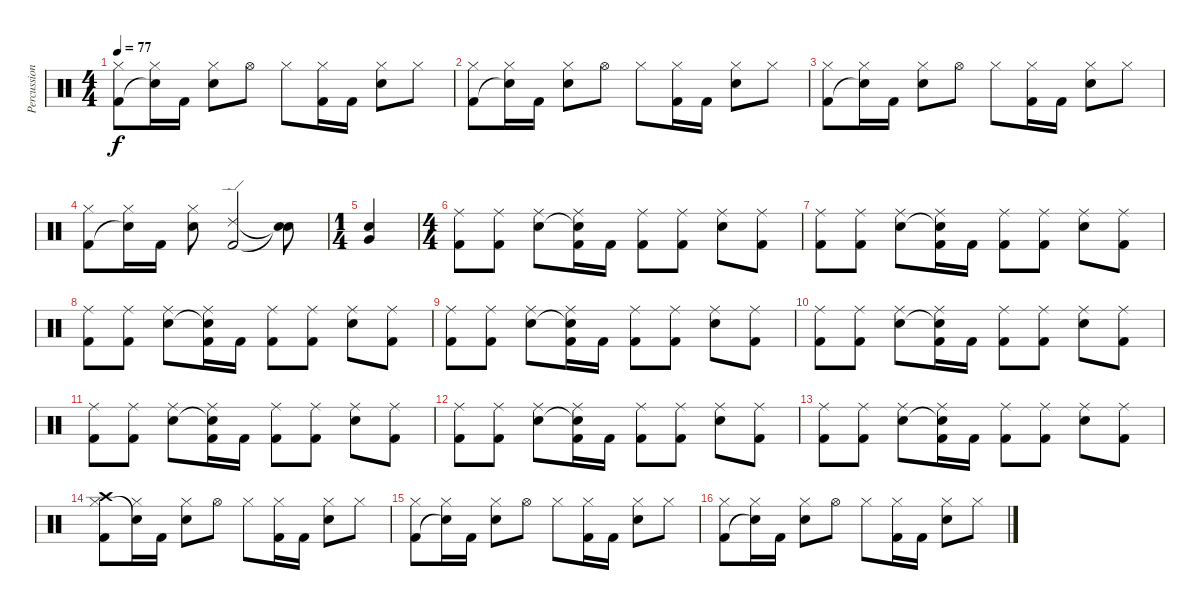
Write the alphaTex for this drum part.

\track ("Percussion" "Percussion") {instrument percussion}
\staff {score}
\articulation defaults
\ts (4 4)
\tempo 77
\clef neutral
\ks c
("Hi-Hat (closed)" "Kick (hit) 2").8{dy f} ("Hi-Hat (closed)" "Snare (hit)"{t}).16 "Kick (hit) 2".16 ("Hi-Hat (closed)" "Electric Snare (hit)").8 "Hi-Hat (open)".8 "Hi-Hat (closed)".8 ("Hi-Hat (closed)" "Kick (hit) 2").16 "Kick (hit) 2".16 ("Hi-Hat (closed)" "Electric Snare (hit)").8 "Hi-Hat (closed)".8 |
("Hi-Hat (closed)" "Kick (hit) 2").8 ("Hi-Hat (closed)" "Snare (hit)"{t}).16 "Kick (hit) 2".16 ("Hi-Hat (closed)" "Electric Snare (hit)").8 "Hi-Hat (open)".8 "Hi-Hat (closed)".8 ("Hi-Hat (closed)" "Kick (hit) 2").16 "Kick (hit) 2".16 ("Hi-Hat (closed)" "Electric Snare (hit)").8 "Hi-Hat (closed)".8 |
("Hi-Hat (closed)" "Kick (hit) 2").8 ("Hi-Hat (closed)" "Snare (hit)"{t}).16 "Kick (hit) 2".16 ("Hi-Hat (closed)" "Electric Snare (hit)").8 "Hi-Hat (open)".8 "Hi-Hat (closed)".8 ("Hi-Hat (closed)" "Kick (hit) 2").16 "Kick (hit) 2".16 ("Hi-Hat (closed)" "Electric Snare (hit)").8 "Hi-Hat (closed)".8 |
("Hi-Hat (closed)" "Kick (hit) 2").8 ("Hi-Hat (closed)" "Snare (hit)"{t}).16 "Kick (hit) 2".16 ("Hi-Hat (closed)" "Electric Snare (hit)").8 ("Ride (edge) 2" "Kick (hit) 2").2 ("Snare (hit)"{t} "Snare (hit)"{t}).8 |
\ts (1 4)
("Very Low Tom (hit)" "Electric Snare (hit)").4 |
\ts (4 4)
("Ride (middle)" "Kick (hit) 2").8 ("Ride (middle)" "Kick (hit) 2").8 ("Ride (middle)" "Electric Snare (hit)").8 ("Ride (middle)" "Snare (hit)"{t} "Kick (hit) 2").16 "Kick (hit) 2".16 ("Ride (middle)" "Kick (hit) 2").8 ("Ride (middle)" "Kick (hit) 2").8 ("Ride (middle)" "Electric Snare (hit)").8 ("Ride (middle)" "Kick (hit) 2").8 |
("Ride (middle)" "Kick (hit) 2").8 ("Ride (middle)" "Kick (hit) 2").8 ("Ride (middle)" "Electric Snare (hit)").8 ("Ride (middle)" "Snare (hit)"{t} "Kick (hit) 2").16 "Kick (hit) 2".16 ("Ride (middle)" "Kick (hit) 2").8 ("Ride (middle)" "Kick (hit) 2").8 ("Ride (middle)" "Electric Snare (hit)").8 ("Ride (middle)" "Kick (hit) 2").8 |
("Ride (middle)" "Kick (hit) 2").8 ("Ride (middle)" "Kick (hit) 2").8 ("Ride (middle)" "Electric Snare (hit)").8 ("Ride (middle)" "Snare (hit)"{t} "Kick (hit) 2").16 "Kick (hit) 2".16 ("Ride (middle)" "Kick (hit) 2").8 ("Ride (middle)" "Kick (hit) 2").8 ("Ride (middle)" "Electric Snare (hit)").8 ("Ride (middle)" "Kick (hit) 2").8 |
("Ride (middle)" "Kick (hit) 2").8 ("Ride (middle)" "Kick (hit) 2").8 ("Ride (middle)" "Electric Snare (hit)").8 ("Ride (middle)" "Snare (hit)"{t} "Kick (hit) 2").16 "Kick (hit) 2".16 ("Ride (middle)" "Kick (hit) 2").8 ("Ride (middle)" "Kick (hit) 2").8 ("Ride (middle)" "Electric Snare (hit)").8 ("Ride (middle)" "Kick (hit) 2").8 |
("Ride (middle)" "Kick (hit) 2").8 ("Ride (middle)" "Kick (hit) 2").8 ("Ride (middle)" "Electric Snare (hit)").8 ("Ride (middle)" "Snare (hit)"{t} "Kick (hit) 2").16 "Kick (hit) 2".16 ("Ride (middle)" "Kick (hit) 2").8 ("Ride (middle)" "Kick (hit) 2").8 ("Ride (middle)" "Electric Snare (hit)").8 ("Ride (middle)" "Kick (hit) 2").8 |
("Ride (middle)" "Kick (hit) 2").8 ("Ride (middle)" "Kick (hit) 2").8 ("Ride (middle)" "Electric Snare (hit)").8 ("Ride (middle)" "Snare (hit)"{t} "Kick (hit) 2").16 "Kick (hit) 2".16 ("Ride (middle)" "Kick (hit) 2").8 ("Ride (middle)" "Kick (hit) 2").8 ("Ride (middle)" "Electric Snare (hit)").8 ("Ride (middle)" "Kick (hit) 2").8 |
("Ride (middle)" "Kick (hit) 2").8 ("Ride (middle)" "Kick (hit) 2").8 ("Ride (middle)" "Electric Snare (hit)").8 ("Ride (middle)" "Snare (hit)"{t} "Kick (hit) 2").16 "Kick (hit) 2".16 ("Ride (middle)" "Kick (hit) 2").8 ("Ride (middle)" "Kick (hit) 2").8 ("Ride (middle)" "Electric Snare (hit)").8 ("Ride (middle)" "Kick (hit) 2").8 |
("Ride (middle)" "Kick (hit) 2").8 ("Ride (middle)" "Kick (hit) 2").8 ("Ride (middle)" "Electric Snare (hit)").8 ("Ride (middle)" "Snare (hit)"{t} "Kick (hit) 2").16 "Kick (hit) 2".16 ("Ride (middle)" "Kick (hit) 2").8 ("Ride (middle)" "Kick (hit) 2").8 ("Ride (middle)" "Electric Snare (hit)").8 ("Ride (middle)" "Kick (hit) 2").8 |
("Crash high (hit)" "Hi-Hat (closed)" "Kick (hit) 2").8 ("Hi-Hat (closed)" "Snare (hit)"{t}).16 "Kick (hit) 2".16 ("Hi-Hat (closed)" "Electric Snare (hit)").8 "Hi-Hat (open)".8 "Hi-Hat (closed)".8 ("Hi-Hat (closed)" "Kick (hit) 2").16 "Kick (hit) 2".16 ("Hi-Hat (closed)" "Electric Snare (hit)").8 "Hi-Hat (closed)".8 |
("Hi-Hat (closed)" "Kick (hit) 2").8 ("Hi-Hat (closed)" "Snare (hit)"{t}).16 "Kick (hit) 2".16 ("Hi-Hat (closed)" "Electric Snare (hit)").8 "Hi-Hat (open)".8 "Hi-Hat (closed)".8 ("Hi-Hat (closed)" "Kick (hit) 2").16 "Kick (hit) 2".16 ("Hi-Hat (closed)" "Electric Snare (hit)").8 "Hi-Hat (closed)".8 |
("Hi-Hat (closed)" "Kick (hit) 2").8 ("Hi-Hat (closed)" "Snare (hit)"{t}).16 "Kick (hit) 2".16 ("Hi-Hat (closed)" "Electric Snare (hit)").8 "Hi-Hat (open)".8 "Hi-Hat (closed)".8 ("Hi-Hat (closed)" "Kick (hit) 2").16 "Kick (hit) 2".16 ("Hi-Hat (closed)" "Electric Snare (hit)").8 "Hi-Hat (closed)".8
